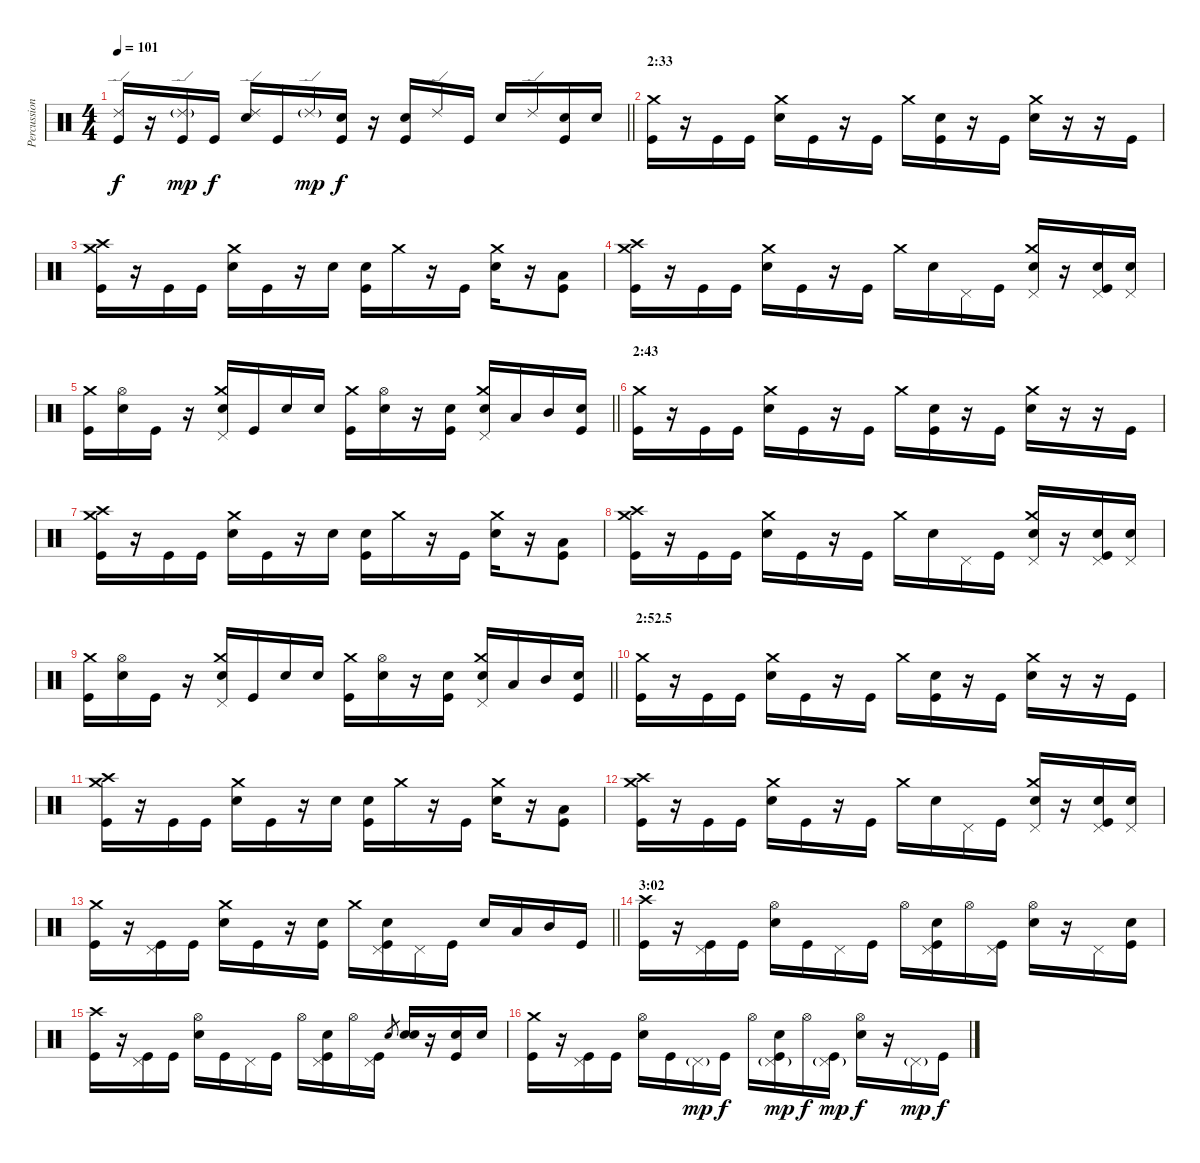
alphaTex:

\track ("Percussion" "Percussion") {instrument percussion}
\staff {score}
\articulation defaults
\ts (4 4)
\tempo 101
\clef neutral
\barLineRight lightlight
\ks c
("Ride (edge) 2" "Kick (hit)").16{dy f} r.16 ("Ride (edge) 2"{g} "Kick (hit)").16{dy mp} "Kick (hit)".16{dy f} ("Ride (edge) 2" "Snare (hit) 2").16 "Kick (hit)".16 "Ride (edge) 2"{g}.16{dy mp} ("Snare (hit) 2" "Kick (hit)").16{dy f} r.16 ("Snare (hit) 2" "Kick (hit)").16 "Ride (edge) 2".16 "Kick (hit)".16 "Snare (hit) 2".16 "Ride (edge) 2".16 ("Snare (hit) 2" "Kick (hit)").16 "Snare (hit) 2".16 |
\section ("" "2:33")
("Crash medium (hit)" "Kick (hit)").16 r.16 "Kick (hit)".16 "Kick (hit)".16 ("Crash medium (hit)" "Snare (hit) 2").16 "Kick (hit)".16 r.16 "Kick (hit)".16 "Crash medium (hit)".16 ("Snare (hit) 2" "Kick (hit)").16 r.16 "Kick (hit)".16 ("Crash medium (hit)" "Snare (hit) 2").16 r.16 r.16 "Kick (hit)".16 |
("Crash high (hit)" "Crash medium (hit)" "Kick (hit)").16 r.16 "Kick (hit)".16 "Kick (hit)".16 ("Crash medium (hit)" "Snare (hit) 2").16 "Kick (hit)".16 r.16 "Snare (hit) 2".16 ("Snare (hit) 2" "Kick (hit)").16 "Crash medium (hit)".16 r.16 "Kick (hit)".16 ("Crash medium (hit)" "Snare (hit) 2").16 r.16 ("Low Tom (hit)" "Kick (hit)").8 |
("Crash high (hit)" "Crash medium (hit)" "Kick (hit)").16 r.16 "Kick (hit)".16 "Kick (hit)".16 ("Crash medium (hit)" "Snare (hit) 2").16 "Kick (hit)".16 r.16 "Kick (hit)".16 "Crash medium (hit)".16 "Snare (hit) 2".16 "Pedal Hi-Hat (hit)".16 "Kick (hit)".16 ("Crash medium (hit)" "Snare (hit) 2" "Pedal Hi-Hat (hit)").16 r.16 ("Snare (hit) 2" "Kick (hit)" "Pedal Hi-Hat (hit)").16 ("Snare (hit) 2" "Pedal Hi-Hat (hit)").16 |
\barLineRight lightlight
("Crash medium (hit)" "Kick (hit)").16 ("Hi-Hat (open)" "Snare (hit) 2").16 "Kick (hit)".16 r.16 ("Crash medium (hit)" "Snare (hit) 2" "Pedal Hi-Hat (hit)").16 "Kick (hit)".16 "Snare (hit) 2".16 "Snare (hit) 2".16 ("Crash medium (hit)" "Kick (hit)").16 ("Hi-Hat (open)" "Snare (hit) 2").16 r.16 ("Snare (hit) 2" "Kick (hit)").16 ("Crash medium (hit)" "Snare (hit) 2" "Pedal Hi-Hat (hit)").16 "Low Tom (hit)".16 "Mid Tom (hit)".16 ("Snare (hit) 2" "Kick (hit)").16 |
\section ("" "2:43")
("Crash medium (hit)" "Kick (hit)").16 r.16 "Kick (hit)".16 "Kick (hit)".16 ("Crash medium (hit)" "Snare (hit) 2").16 "Kick (hit)".16 r.16 "Kick (hit)".16 "Crash medium (hit)".16 ("Snare (hit) 2" "Kick (hit)").16 r.16 "Kick (hit)".16 ("Crash medium (hit)" "Snare (hit) 2").16 r.16 r.16 "Kick (hit)".16 |
("Crash high (hit)" "Crash medium (hit)" "Kick (hit)").16 r.16 "Kick (hit)".16 "Kick (hit)".16 ("Crash medium (hit)" "Snare (hit) 2").16 "Kick (hit)".16 r.16 "Snare (hit) 2".16 ("Snare (hit) 2" "Kick (hit)").16 "Crash medium (hit)".16 r.16 "Kick (hit)".16 ("Crash medium (hit)" "Snare (hit) 2").16 r.16 ("Low Tom (hit)" "Kick (hit)").8 |
("Crash high (hit)" "Crash medium (hit)" "Kick (hit)").16 r.16 "Kick (hit)".16 "Kick (hit)".16 ("Crash medium (hit)" "Snare (hit) 2").16 "Kick (hit)".16 r.16 "Kick (hit)".16 "Crash medium (hit)".16 "Snare (hit) 2".16 "Pedal Hi-Hat (hit)".16 "Kick (hit)".16 ("Crash medium (hit)" "Snare (hit) 2" "Pedal Hi-Hat (hit)").16 r.16 ("Snare (hit) 2" "Kick (hit)" "Pedal Hi-Hat (hit)").16 ("Snare (hit) 2" "Pedal Hi-Hat (hit)").16 |
\barLineRight lightlight
("Crash medium (hit)" "Kick (hit)").16 ("Hi-Hat (open)" "Snare (hit) 2").16 "Kick (hit)".16 r.16 ("Crash medium (hit)" "Snare (hit) 2" "Pedal Hi-Hat (hit)").16 "Kick (hit)".16 "Snare (hit) 2".16 "Snare (hit) 2".16 ("Crash medium (hit)" "Kick (hit)").16 ("Hi-Hat (open)" "Snare (hit) 2").16 r.16 ("Snare (hit) 2" "Kick (hit)").16 ("Crash medium (hit)" "Snare (hit) 2" "Pedal Hi-Hat (hit)").16 "Low Tom (hit)".16 "Mid Tom (hit)".16 ("Snare (hit) 2" "Kick (hit)").16 |
\section ("" "2:52.5")
("Crash medium (hit)" "Kick (hit)").16 r.16 "Kick (hit)".16 "Kick (hit)".16 ("Crash medium (hit)" "Snare (hit) 2").16 "Kick (hit)".16 r.16 "Kick (hit)".16 "Crash medium (hit)".16 ("Snare (hit) 2" "Kick (hit)").16 r.16 "Kick (hit)".16 ("Crash medium (hit)" "Snare (hit) 2").16 r.16 r.16 "Kick (hit)".16 |
("Crash high (hit)" "Crash medium (hit)" "Kick (hit)").16 r.16 "Kick (hit)".16 "Kick (hit)".16 ("Crash medium (hit)" "Snare (hit) 2").16 "Kick (hit)".16 r.16 "Snare (hit) 2".16 ("Snare (hit) 2" "Kick (hit)").16 "Crash medium (hit)".16 r.16 "Kick (hit)".16 ("Crash medium (hit)" "Snare (hit) 2").16 r.16 ("Low Tom (hit)" "Kick (hit)").8 |
("Crash high (hit)" "Crash medium (hit)" "Kick (hit)").16 r.16 "Kick (hit)".16 "Kick (hit)".16 ("Crash medium (hit)" "Snare (hit) 2").16 "Kick (hit)".16 r.16 "Kick (hit)".16 "Crash medium (hit)".16 "Snare (hit) 2".16 "Pedal Hi-Hat (hit)".16 "Kick (hit)".16 ("Crash medium (hit)" "Snare (hit) 2" "Pedal Hi-Hat (hit)").16 r.16 ("Snare (hit) 2" "Kick (hit)" "Pedal Hi-Hat (hit)").16 ("Snare (hit) 2" "Pedal Hi-Hat (hit)").16 |
\barLineRight lightlight
("Crash medium (hit)" "Kick (hit)").16 r.16 ("Kick (hit)" "Pedal Hi-Hat (hit)").16 "Kick (hit)".16 ("Crash medium (hit)" "Snare (hit) 2").16 "Kick (hit)".16 r.16 ("Snare (hit) 2" "Kick (hit)").16 "Crash medium (hit)".16 ("Snare (hit) 2" "Kick (hit)" "Pedal Hi-Hat (hit)").16 "Pedal Hi-Hat (hit)".16 "Kick (hit)".16 "Snare (hit) 2".16 "Low Tom (hit)".16 "Mid Tom (hit)".16 "Kick (hit)".16 |
\section ("" "3:02")
("Crash high (hit)" "Kick (hit)").16 r.16 ("Kick (hit)" "Pedal Hi-Hat (hit)").16 "Kick (hit)".16 ("Hi-Hat (open)" "Snare (hit) 2").16 "Kick (hit)".16 "Pedal Hi-Hat (hit)".16 "Kick (hit)".16 "Hi-Hat (open)".16 ("Snare (hit) 2" "Kick (hit)" "Pedal Hi-Hat (hit)").16 "Hi-Hat (open)".16 ("Kick (hit)" "Pedal Hi-Hat (hit)").16 ("Hi-Hat (open)" "Snare (hit) 2").16 r.16 "Pedal Hi-Hat (hit)".16 ("Snare (hit) 2" "Kick (hit)").16 |
("Crash high (hit)" "Kick (hit)").16 r.16 ("Kick (hit)" "Pedal Hi-Hat (hit)").16 "Kick (hit)".16 ("Hi-Hat (open)" "Snare (hit) 2").16 "Kick (hit)".16 "Pedal Hi-Hat (hit)".16 "Kick (hit)".16 "Hi-Hat (open)".16 ("Snare (hit) 2" "Kick (hit)" "Pedal Hi-Hat (hit)").16 "Hi-Hat (open)".16 ("Kick (hit)" "Pedal Hi-Hat (hit)").16 "Snare (hit) 2".8{gr} ("Snare (hit) 2" "Snare (hit) 2").16 r.16 ("Snare (hit) 2" "Kick (hit)").16 "Snare (hit) 2".16 |
("Crash medium (hit)" "Kick (hit)").16 r.16 ("Kick (hit)" "Pedal Hi-Hat (hit)").16 "Kick (hit)".16 ("Hi-Hat (open)" "Snare (hit) 2").16 "Kick (hit)".16 "Pedal Hi-Hat (hit)"{g}.16{dy mp} "Kick (hit)".16{dy f} "Hi-Hat (open)".16 ("Snare (hit) 2" "Kick (hit)" "Pedal Hi-Hat (hit)"{g}).16{dy mp} "Hi-Hat (open)".16{dy f} ("Kick (hit)" "Pedal Hi-Hat (hit)"{g}).16{dy mp} ("Hi-Hat (open)" "Snare (hit) 2").16{dy f} r.16 "Pedal Hi-Hat (hit)"{g}.16{dy mp} "Kick (hit)".16{dy f}
